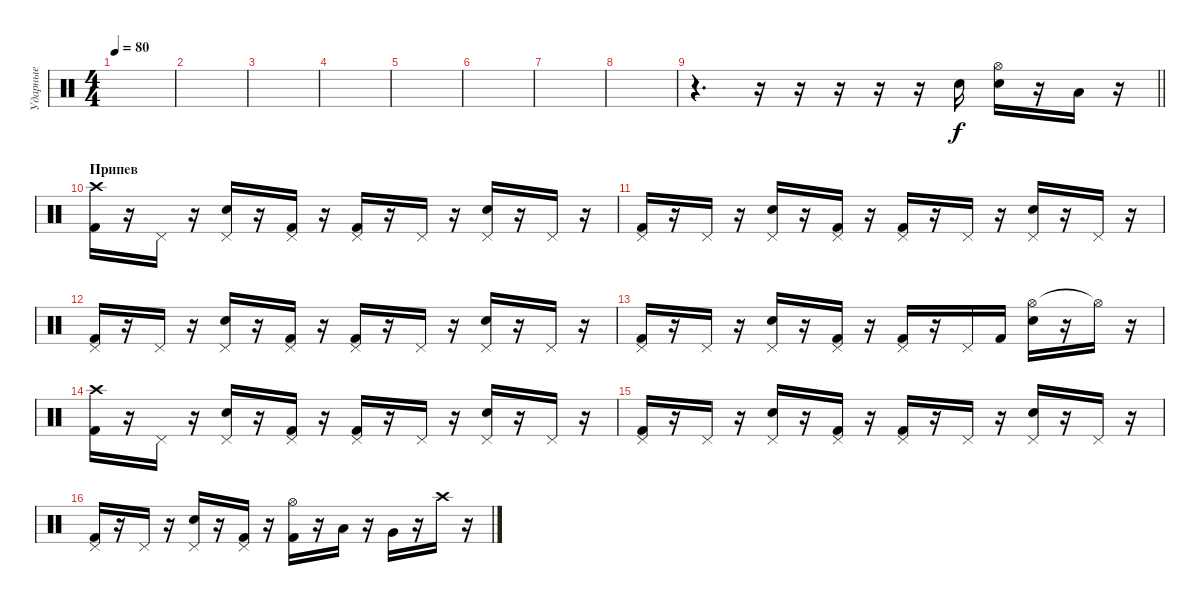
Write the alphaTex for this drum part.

\track ("Ударные" "Ударные") {instrument percussion}
\staff {score}
\articulation defaults
\ts (4 4)
\tempo 80
\clef neutral
\ks c
|
|
|
|
|
|
|
|
\barLineRight lightlight
r.4{d} r.16 r.16 r.16 r.16 r.16 "Electric Snare (hit)".16 ("Electric Snare (hit)" "Hi-Hat (open)").16 r.16 "Low Tom (hit)".16 r.16 |
\section ("" "Припев")
("Crash high (hit)" "Kick (hit) 2").16 r.16 "Pedal Hi-Hat (hit)".16 r.16 ("Pedal Hi-Hat (hit)" "Electric Snare (hit)").16 r.16 ("Pedal Hi-Hat (hit)" "Kick (hit) 2").16 r.16 ("Pedal Hi-Hat (hit)" "Kick (hit) 2").16 r.16 "Pedal Hi-Hat (hit)".16 r.16 ("Pedal Hi-Hat (hit)" "Electric Snare (hit)").16 r.16 "Pedal Hi-Hat (hit)".16 r.16 |
("Pedal Hi-Hat (hit)" "Kick (hit) 2").16 r.16 "Pedal Hi-Hat (hit)".16 r.16 ("Pedal Hi-Hat (hit)" "Electric Snare (hit)").16 r.16 ("Pedal Hi-Hat (hit)" "Kick (hit) 2").16 r.16 ("Pedal Hi-Hat (hit)" "Kick (hit) 2").16 r.16 "Pedal Hi-Hat (hit)".16 r.16 ("Pedal Hi-Hat (hit)" "Electric Snare (hit)").16 r.16 "Pedal Hi-Hat (hit)".16 r.16 |
("Pedal Hi-Hat (hit)" "Kick (hit) 2").16 r.16 "Pedal Hi-Hat (hit)".16 r.16 ("Pedal Hi-Hat (hit)" "Electric Snare (hit)").16 r.16 ("Pedal Hi-Hat (hit)" "Kick (hit) 2").16 r.16 ("Pedal Hi-Hat (hit)" "Kick (hit) 2").16 r.16 "Pedal Hi-Hat (hit)".16 r.16 ("Pedal Hi-Hat (hit)" "Electric Snare (hit)").16 r.16 "Pedal Hi-Hat (hit)".16 r.16 |
("Pedal Hi-Hat (hit)" "Kick (hit) 2").16 r.16 "Pedal Hi-Hat (hit)".16 r.16 ("Pedal Hi-Hat (hit)" "Electric Snare (hit)").16 r.16 ("Pedal Hi-Hat (hit)" "Kick (hit) 2").16 r.16 ("Pedal Hi-Hat (hit)" "Kick (hit) 2").16 r.16 "Pedal Hi-Hat (hit)".16 "Kick (hit) 2".16 ("Hi-Hat (open)" "Electric Snare (hit)").16 r.16 "Hi-Hat (open)"{t}.16 r.16 |
("Crash high (hit)" "Kick (hit) 2").16 r.16 "Pedal Hi-Hat (hit)".16 r.16 ("Pedal Hi-Hat (hit)" "Electric Snare (hit)").16 r.16 ("Pedal Hi-Hat (hit)" "Kick (hit) 2").16 r.16 ("Pedal Hi-Hat (hit)" "Kick (hit) 2").16 r.16 "Pedal Hi-Hat (hit)".16 r.16 ("Pedal Hi-Hat (hit)" "Electric Snare (hit)").16 r.16 "Pedal Hi-Hat (hit)".16 r.16 |
("Pedal Hi-Hat (hit)" "Kick (hit) 2").16 r.16 "Pedal Hi-Hat (hit)".16 r.16 ("Pedal Hi-Hat (hit)" "Electric Snare (hit)").16 r.16 ("Pedal Hi-Hat (hit)" "Kick (hit) 2").16 r.16 ("Pedal Hi-Hat (hit)" "Kick (hit) 2").16 r.16 "Pedal Hi-Hat (hit)".16 r.16 ("Pedal Hi-Hat (hit)" "Electric Snare (hit)").16 r.16 "Pedal Hi-Hat (hit)".16 r.16 |
("Pedal Hi-Hat (hit)" "Kick (hit) 2").16 r.16 "Pedal Hi-Hat (hit)".16 r.16 ("Pedal Hi-Hat (hit)" "Electric Snare (hit)").16 r.16 ("Pedal Hi-Hat (hit)" "Kick (hit) 2").16 r.16 ("Hi-Hat (open)" "Kick (hit) 2").16 r.16 "Low Tom (hit)".16 r.16 "Very Low Tom (hit)".16 r.16 "Crash high (hit)".16 r.16
